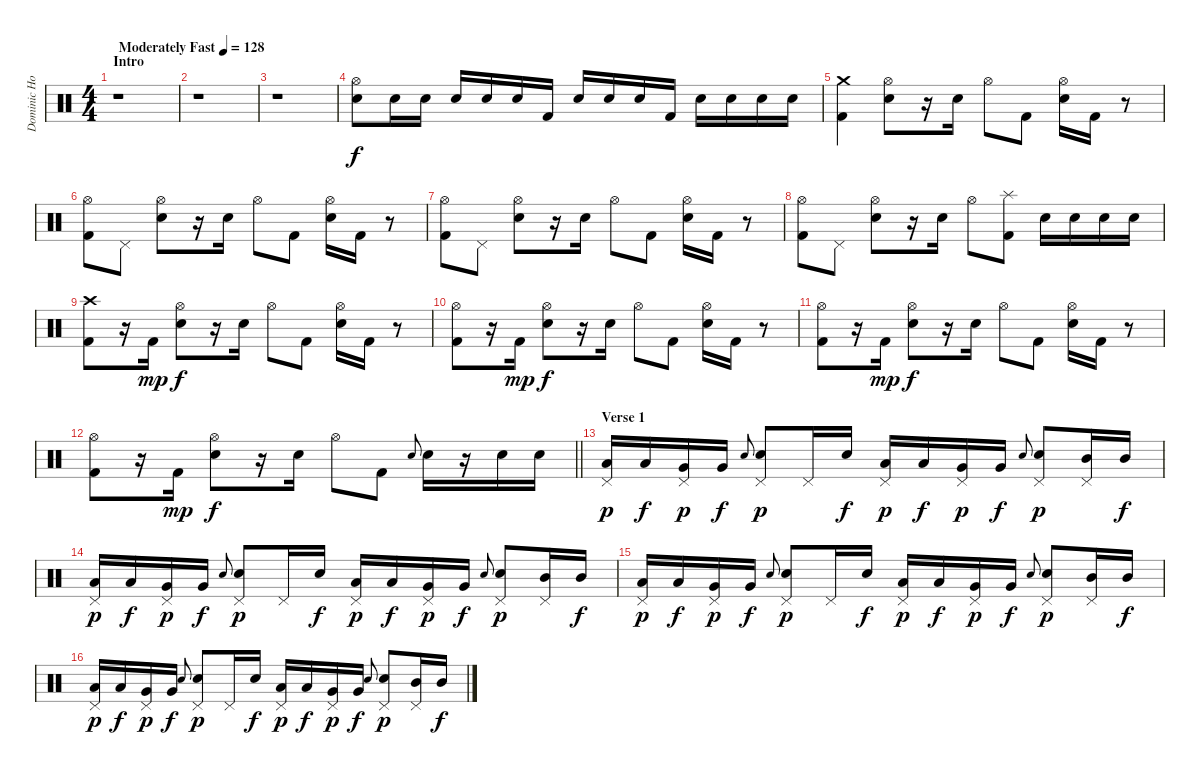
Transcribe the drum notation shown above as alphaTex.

\track ("Dominic Howard (Drums)" "Dominic Ho") {instrument percussion}
\staff {score}
\articulation defaults
\ts (4 4)
\section ("" "Intro")
\tempo (128 "Moderately Fast")
\clef neutral
\ks c
r.1{dy f} |
r.1 |
r.1 |
("Hi-Hat (open)" "Electric Snare (hit)").8 "Electric Snare (hit)".16 "Electric Snare (hit)".16 "Electric Snare (hit)".16 "Electric Snare (hit)".16 "Electric Snare (hit)".16 "Kick (hit) 2".16 "Electric Snare (hit)".16 "Electric Snare (hit)".16 "Electric Snare (hit)".16 "Kick (hit) 2".16 "Electric Snare (hit)".16 "Electric Snare (hit)".16 "Electric Snare (hit)".16 "Electric Snare (hit)".16 |
("Crash medium (hit)" "Kick (hit) 2").4 ("Hi-Hat (open)" "Electric Snare (hit)").8 r.16 "Electric Snare (hit)".16 "Hi-Hat (open)".8 "Kick (hit) 2".8 ("Hi-Hat (open)" "Electric Snare (hit)").16 "Kick (hit) 2".16 r.8 |
("Hi-Hat (open)" "Kick (hit) 2").8 "Pedal Hi-Hat (hit)".8 ("Hi-Hat (open)" "Electric Snare (hit)").8 r.16 "Electric Snare (hit)".16 "Hi-Hat (open)".8 "Kick (hit) 2".8 ("Hi-Hat (open)" "Electric Snare (hit)").16 "Kick (hit) 2".16 r.8 |
("Hi-Hat (open)" "Kick (hit) 2").8 "Pedal Hi-Hat (hit)".8 ("Hi-Hat (open)" "Electric Snare (hit)").8 r.16 "Electric Snare (hit)".16 "Hi-Hat (open)".8 "Kick (hit) 2".8 ("Hi-Hat (open)" "Electric Snare (hit)").16 "Kick (hit) 2".16 r.8 |
("Hi-Hat (open)" "Kick (hit) 2").8 "Pedal Hi-Hat (hit)".8 ("Hi-Hat (open)" "Electric Snare (hit)").8 r.16 "Electric Snare (hit)".16 "Hi-Hat (open)".8 ("Splash (hit)" "Kick (hit) 2").8 "Electric Snare (hit)".16 "Electric Snare (hit)".16 "Electric Snare (hit)".16 "Electric Snare (hit)".16 |
("Crash high (hit)" "Kick (hit) 2").8 r.16 "Kick (hit) 2".16{dy mp} ("Hi-Hat (open)" "Electric Snare (hit)").8{dy f} r.16 "Electric Snare (hit)".16 "Hi-Hat (open)".8 "Kick (hit) 2".8 ("Hi-Hat (open)" "Electric Snare (hit)").16 "Kick (hit) 2".16 r.8 |
("Hi-Hat (open)" "Kick (hit) 2").8 r.16 "Kick (hit) 2".16{dy mp} ("Hi-Hat (open)" "Electric Snare (hit)").8{dy f} r.16 "Electric Snare (hit)".16 "Hi-Hat (open)".8 "Kick (hit) 2".8 ("Hi-Hat (open)" "Electric Snare (hit)").16 "Kick (hit) 2".16 r.8 |
("Hi-Hat (open)" "Kick (hit) 2").8 r.16 "Kick (hit) 2".16{dy mp} ("Hi-Hat (open)" "Electric Snare (hit)").8{dy f} r.16 "Electric Snare (hit)".16 "Hi-Hat (open)".8 "Kick (hit) 2".8 ("Hi-Hat (open)" "Electric Snare (hit)").16 "Kick (hit) 2".16 r.8 |
\barLineRight lightlight
("Hi-Hat (open)" "Kick (hit) 2").8 r.16 "Kick (hit) 2".16{dy mp} ("Hi-Hat (open)" "Electric Snare (hit)").8{dy f} r.16 "Electric Snare (hit)".16 "Hi-Hat (open)".8 "Kick (hit) 2".8 "Electric Snare (hit)".8{gr onbeat} "Electric Snare (hit)".16 r.16 "Electric Snare (hit)".16 "Electric Snare (hit)".16 |
\section ("" "Verse 1")
("Pedal Hi-Hat (hit)" "Low Tom (hit)").16{dy p} "Low Tom (hit)".16{dy f} ("Pedal Hi-Hat (hit)" "Very Low Tom (hit)").16{dy p} "Very Low Tom (hit)".16{dy f} "Electric Snare (hit)".8{gr onbeat} ("Pedal Hi-Hat (hit)" "Electric Snare (hit)").8{dy p} "Pedal Hi-Hat (hit)".16 "Electric Snare (hit)".16{dy f} ("Pedal Hi-Hat (hit)" "Low Tom (hit)").16{dy p} "Low Tom (hit)".16{dy f} ("Pedal Hi-Hat (hit)" "Very Low Tom (hit)").16{dy p} "Very Low Tom (hit)".16{dy f} "Electric Snare (hit)".8{gr onbeat} ("Pedal Hi-Hat (hit)" "Electric Snare (hit)").8{dy p} ("Pedal Hi-Hat (hit)" "Mid Tom (hit)").16 "Mid Tom (hit)".16{dy f} |
("Pedal Hi-Hat (hit)" "Low Tom (hit)").16{dy p} "Low Tom (hit)".16{dy f} ("Pedal Hi-Hat (hit)" "Very Low Tom (hit)").16{dy p} "Very Low Tom (hit)".16{dy f} "Electric Snare (hit)".8{gr onbeat} ("Pedal Hi-Hat (hit)" "Electric Snare (hit)").8{dy p} "Pedal Hi-Hat (hit)".16 "Electric Snare (hit)".16{dy f} ("Pedal Hi-Hat (hit)" "Low Tom (hit)").16{dy p} "Low Tom (hit)".16{dy f} ("Pedal Hi-Hat (hit)" "Very Low Tom (hit)").16{dy p} "Very Low Tom (hit)".16{dy f} "Electric Snare (hit)".8{gr onbeat} ("Pedal Hi-Hat (hit)" "Electric Snare (hit)").8{dy p} ("Pedal Hi-Hat (hit)" "Mid Tom (hit)").16 "Mid Tom (hit)".16{dy f} |
("Pedal Hi-Hat (hit)" "Low Tom (hit)").16{dy p} "Low Tom (hit)".16{dy f} ("Pedal Hi-Hat (hit)" "Very Low Tom (hit)").16{dy p} "Very Low Tom (hit)".16{dy f} "Electric Snare (hit)".8{gr onbeat} ("Pedal Hi-Hat (hit)" "Electric Snare (hit)").8{dy p} "Pedal Hi-Hat (hit)".16 "Electric Snare (hit)".16{dy f} ("Pedal Hi-Hat (hit)" "Low Tom (hit)").16{dy p} "Low Tom (hit)".16{dy f} ("Pedal Hi-Hat (hit)" "Very Low Tom (hit)").16{dy p} "Very Low Tom (hit)".16{dy f} "Electric Snare (hit)".8{gr onbeat} ("Pedal Hi-Hat (hit)" "Electric Snare (hit)").8{dy p} ("Pedal Hi-Hat (hit)" "Mid Tom (hit)").16 "Mid Tom (hit)".16{dy f} |
("Pedal Hi-Hat (hit)" "Low Tom (hit)").16{dy p} "Low Tom (hit)".16{dy f} ("Pedal Hi-Hat (hit)" "Very Low Tom (hit)").16{dy p} "Very Low Tom (hit)".16{dy f} "Electric Snare (hit)".8{gr onbeat} ("Pedal Hi-Hat (hit)" "Electric Snare (hit)").8{dy p} "Pedal Hi-Hat (hit)".16 "Electric Snare (hit)".16{dy f} ("Pedal Hi-Hat (hit)" "Low Tom (hit)").16{dy p} "Low Tom (hit)".16{dy f} ("Pedal Hi-Hat (hit)" "Very Low Tom (hit)").16{dy p} "Very Low Tom (hit)".16{dy f} "Electric Snare (hit)".8{gr onbeat} ("Pedal Hi-Hat (hit)" "Electric Snare (hit)").8{dy p} ("Pedal Hi-Hat (hit)" "Mid Tom (hit)").16 "Mid Tom (hit)".16{dy f}
